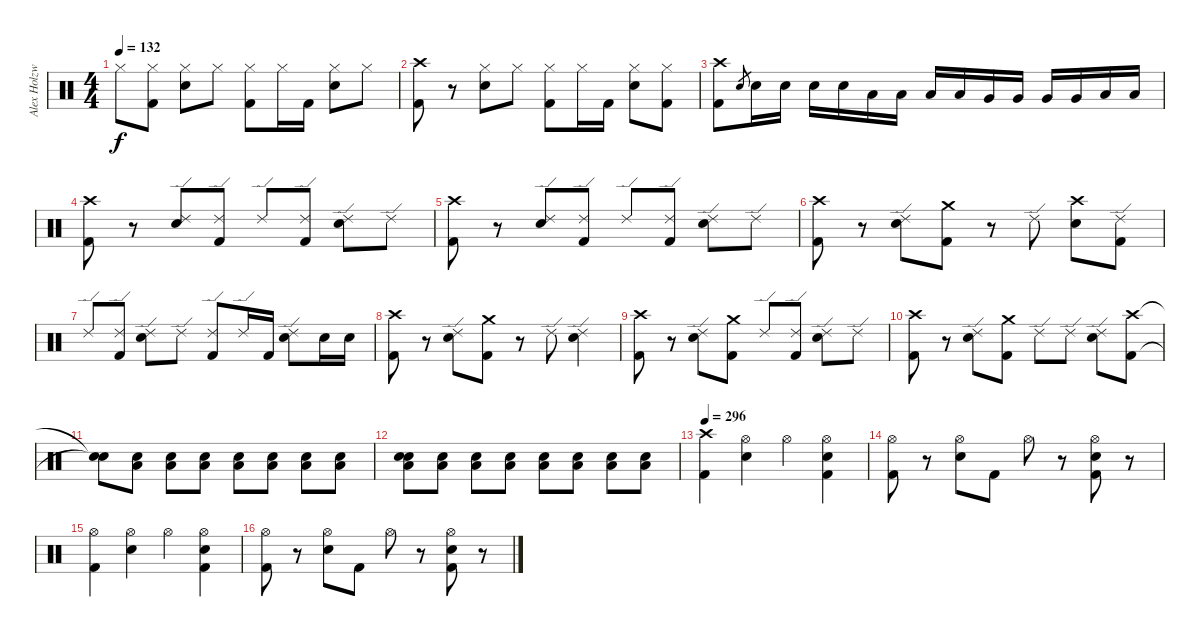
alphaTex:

\track ("Alex Holzwarth" "Alex Holzw") {instrument percussion}
\staff {score}
\articulation defaults
\ts (4 4)
\tempo 132
\clef neutral
\ks c "Hi-Hat (closed)".8{dy f}
("Hi-Hat (closed)" "Kick (hit) 2").8 ("Hi-Hat (closed)" "Snare (hit) 2").8 "Hi-Hat (closed)".8 ("Hi-Hat (closed)" "Kick (hit) 2").8 "Hi-Hat (closed)".16 "Kick (hit) 2".16 ("Hi-Hat (closed)" "Snare (hit) 2").8 "Hi-Hat (closed)".8 |
("Crash high (hit)" "Kick (hit) 2").8 r.8 ("Hi-Hat (closed)" "Snare (hit) 2").8 "Hi-Hat (closed)".8 ("Hi-Hat (closed)" "Kick (hit) 2").8 "Hi-Hat (closed)".16 "Kick (hit) 2".16 ("Hi-Hat (closed)" "Snare (hit) 2").8 ("Hi-Hat (closed)" "Kick (hit) 2").8 |
("Crash high (hit)" "Kick (hit) 2").8 "Snare (hit) 2".8{gr} "Snare (hit) 2".16 "Snare (hit) 2".16 "Snare (hit) 2".16 "Snare (hit) 2".16 "Low Tom (hit)".16 "Low Tom (hit)".16 "Low Tom (hit)".16 "Low Tom (hit)".16 "Very Low Tom (hit)".16 "Very Low Tom (hit)".16 "Very Low Tom (hit)".16 "Very Low Tom (hit)".16 "Low Floor Tom (hit)".16 "Low Floor Tom (hit)".16 |
("Crash high (hit)" "Kick (hit) 2").8 r.8 ("Ride (edge) 2" "Snare (hit) 2").8 ("Ride (edge) 2" "Kick (hit) 2").8 "Ride (edge) 2".8 ("Ride (edge) 2" "Kick (hit) 2").8 ("Ride (edge) 2" "Snare (hit) 2").8 "Ride (edge) 2".8 |
("Crash high (hit)" "Kick (hit) 2").8 r.8 ("Ride (edge) 2" "Snare (hit) 2").8 ("Ride (edge) 2" "Kick (hit) 2").8 "Ride (edge) 2".8 ("Ride (edge) 2" "Kick (hit) 2").8 ("Ride (edge) 2" "Snare (hit) 2").8 "Ride (edge) 2".8 |
("Crash high (hit)" "Kick (hit) 2").8 r.8 ("Ride (edge) 2" "Snare (hit) 2").8 ("Crash medium (hit)" "Kick (hit) 2").8 r.8 "Ride (edge) 2".8 ("Crash high (hit)" "Snare (hit) 2").8 ("Ride (edge) 2" "Kick (hit) 2").8 |
"Ride (edge) 2".8 ("Ride (edge) 2" "Kick (hit) 2").8 ("Ride (edge) 2" "Snare (hit) 2").8 "Ride (edge) 2".8 ("Ride (edge) 2" "Kick (hit) 2").8 "Ride (edge) 2".16 "Kick (hit) 2".16 ("Ride (edge) 2" "Snare (hit) 2").8 "Snare (hit) 2".16 "Snare (hit) 2".16 |
("Crash high (hit)" "Kick (hit) 2").8 r.8 ("Ride (edge) 2" "Snare (hit) 2").8 ("Crash medium (hit)" "Kick (hit) 2").8 r.8 "Ride (edge) 2".8 ("Ride (edge) 2" "Snare (hit) 2").4 |
("Crash high (hit)" "Kick (hit) 2").8 r.8 ("Ride (edge) 2" "Snare (hit) 2").8 ("Crash medium (hit)" "Kick (hit) 2").8 "Ride (edge) 2".8 ("Ride (edge) 2" "Kick (hit) 2").8 ("Ride (edge) 2" "Snare (hit) 2").8 "Ride (edge) 2".8 |
("Crash high (hit)" "Kick (hit) 2").8 r.8 ("Ride (edge) 2" "Snare (hit) 2").8 ("Crash medium (hit)" "Kick (hit) 2").8 "Ride (edge) 2".8 "Ride (edge) 2".8 ("Ride (edge) 2" "Snare (hit) 2").8 ("Crash high (hit)" "Kick (hit) 2").8 |
("Snare (hit)"{t} "Snare (hit)"{t}).8 ("Low Floor Tom (hit)" "Snare (hit) 2").8 ("Low Floor Tom (hit)" "Snare (hit) 2").8 ("Low Floor Tom (hit)" "Snare (hit) 2").8 ("Low Floor Tom (hit)" "Snare (hit) 2").8 ("Low Floor Tom (hit)" "Snare (hit) 2").8 ("Low Floor Tom (hit)" "Snare (hit) 2").8 ("Low Floor Tom (hit)" "Snare (hit) 2").8 |
("Low Floor Tom (hit)" "Snare (hit) 2" "Snare (hit)").8 ("Low Floor Tom (hit)" "Snare (hit) 2").8 ("Low Floor Tom (hit)" "Snare (hit) 2").8 ("Low Floor Tom (hit)" "Snare (hit) 2").8 ("Low Floor Tom (hit)" "Snare (hit) 2").8 ("Low Floor Tom (hit)" "Snare (hit) 2").8 ("Low Floor Tom (hit)" "Snare (hit) 2").8 ("Low Floor Tom (hit)" "Snare (hit) 2").8 |
\tempo 296
("Crash high (hit)" "Kick (hit) 2").4 ("Hi-Hat (open)" "Snare (hit) 2").4 "Hi-Hat (open)".4 ("Hi-Hat (open)" "Snare (hit) 2" "Kick (hit) 2").4 |
("Hi-Hat (open)" "Kick (hit) 2").8 r.8 ("Hi-Hat (open)" "Snare (hit) 2").8 "Kick (hit) 2".8 "Hi-Hat (open)".8 r.8 ("Hi-Hat (open)" "Snare (hit) 2" "Kick (hit) 2").8 r.8 |
("Hi-Hat (open)" "Kick (hit) 2").4 ("Hi-Hat (open)" "Snare (hit) 2").4 "Hi-Hat (open)".4 ("Hi-Hat (open)" "Snare (hit) 2" "Kick (hit) 2").4 |
("Hi-Hat (open)" "Kick (hit) 2").8 r.8 ("Hi-Hat (open)" "Snare (hit) 2").8 "Kick (hit) 2".8 "Hi-Hat (open)".8 r.8 ("Hi-Hat (open)" "Snare (hit) 2" "Kick (hit) 2").8 r.8
